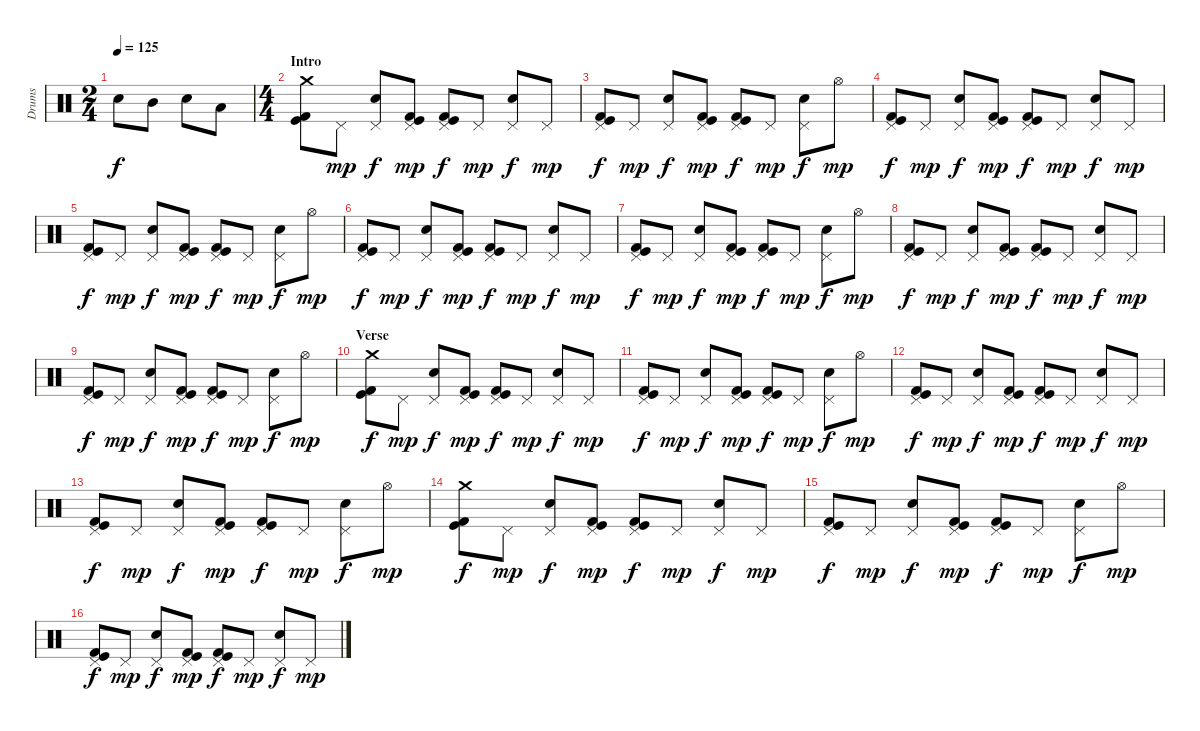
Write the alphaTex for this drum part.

\track ("Drums" "Drums") {instrument percussion}
\staff {score}
\articulation defaults
\ts (2 4)
\tempo 125
\clef neutral
\ks c "Electric Snare (hit)".8{dy f} "Mid Tom (hit)".8 "Electric Snare (hit)".8 "Low Tom (hit)".8
|
\ts (4 4)
\section ("" "Intro")
("Crash medium (hit)" "Kick (hit) 2" "Kick (hit)").8 "Pedal Hi-Hat (hit)".8{dy mp} ("Pedal Hi-Hat (hit)" "Electric Snare (hit)").8{dy f} ("Pedal Hi-Hat (hit)" "Kick (hit) 2" "Kick (hit)").8{dy mp} ("Pedal Hi-Hat (hit)" "Kick (hit) 2" "Kick (hit)").8{dy f} "Pedal Hi-Hat (hit)".8{dy mp} ("Pedal Hi-Hat (hit)" "Electric Snare (hit)").8{dy f} "Pedal Hi-Hat (hit)".8{dy mp} |
("Pedal Hi-Hat (hit)" "Kick (hit) 2" "Kick (hit)").8{dy f} "Pedal Hi-Hat (hit)".8{dy mp} ("Pedal Hi-Hat (hit)" "Electric Snare (hit)").8{dy f} ("Pedal Hi-Hat (hit)" "Kick (hit) 2" "Kick (hit)").8{dy mp} ("Pedal Hi-Hat (hit)" "Kick (hit) 2" "Kick (hit)").8{dy f} "Pedal Hi-Hat (hit)".8{dy mp} ("Pedal Hi-Hat (hit)" "Electric Snare (hit)").8{dy f} "Hi-Hat (open)".8{dy mp} |
("Pedal Hi-Hat (hit)" "Kick (hit) 2" "Kick (hit)").8{dy f} "Pedal Hi-Hat (hit)".8{dy mp} ("Pedal Hi-Hat (hit)" "Electric Snare (hit)").8{dy f} ("Pedal Hi-Hat (hit)" "Kick (hit) 2" "Kick (hit)").8{dy mp} ("Pedal Hi-Hat (hit)" "Kick (hit) 2" "Kick (hit)").8{dy f} "Pedal Hi-Hat (hit)".8{dy mp} ("Pedal Hi-Hat (hit)" "Electric Snare (hit)").8{dy f} "Pedal Hi-Hat (hit)".8{dy mp} |
("Pedal Hi-Hat (hit)" "Kick (hit) 2" "Kick (hit)").8{dy f} "Pedal Hi-Hat (hit)".8{dy mp} ("Pedal Hi-Hat (hit)" "Electric Snare (hit)").8{dy f} ("Pedal Hi-Hat (hit)" "Kick (hit) 2" "Kick (hit)").8{dy mp} ("Pedal Hi-Hat (hit)" "Kick (hit) 2" "Kick (hit)").8{dy f} "Pedal Hi-Hat (hit)".8{dy mp} ("Pedal Hi-Hat (hit)" "Electric Snare (hit)").8{dy f} "Hi-Hat (open)".8{dy mp} |
("Pedal Hi-Hat (hit)" "Kick (hit) 2" "Kick (hit)").8{dy f} "Pedal Hi-Hat (hit)".8{dy mp} ("Pedal Hi-Hat (hit)" "Electric Snare (hit)").8{dy f} ("Pedal Hi-Hat (hit)" "Kick (hit) 2" "Kick (hit)").8{dy mp} ("Pedal Hi-Hat (hit)" "Kick (hit) 2" "Kick (hit)").8{dy f} "Pedal Hi-Hat (hit)".8{dy mp} ("Pedal Hi-Hat (hit)" "Electric Snare (hit)").8{dy f} "Pedal Hi-Hat (hit)".8{dy mp} |
("Pedal Hi-Hat (hit)" "Kick (hit) 2" "Kick (hit)").8{dy f} "Pedal Hi-Hat (hit)".8{dy mp} ("Pedal Hi-Hat (hit)" "Electric Snare (hit)").8{dy f} ("Pedal Hi-Hat (hit)" "Kick (hit) 2" "Kick (hit)").8{dy mp} ("Pedal Hi-Hat (hit)" "Kick (hit) 2" "Kick (hit)").8{dy f} "Pedal Hi-Hat (hit)".8{dy mp} ("Pedal Hi-Hat (hit)" "Electric Snare (hit)").8{dy f} "Hi-Hat (open)".8{dy mp} |
("Pedal Hi-Hat (hit)" "Kick (hit) 2" "Kick (hit)").8{dy f} "Pedal Hi-Hat (hit)".8{dy mp} ("Pedal Hi-Hat (hit)" "Electric Snare (hit)").8{dy f} ("Pedal Hi-Hat (hit)" "Kick (hit) 2" "Kick (hit)").8{dy mp} ("Pedal Hi-Hat (hit)" "Kick (hit) 2" "Kick (hit)").8{dy f} "Pedal Hi-Hat (hit)".8{dy mp} ("Pedal Hi-Hat (hit)" "Electric Snare (hit)").8{dy f} "Pedal Hi-Hat (hit)".8{dy mp} |
("Pedal Hi-Hat (hit)" "Kick (hit) 2" "Kick (hit)").8{dy f} "Pedal Hi-Hat (hit)".8{dy mp} ("Pedal Hi-Hat (hit)" "Electric Snare (hit)").8{dy f} ("Pedal Hi-Hat (hit)" "Kick (hit) 2" "Kick (hit)").8{dy mp} ("Pedal Hi-Hat (hit)" "Kick (hit) 2" "Kick (hit)").8{dy f} "Pedal Hi-Hat (hit)".8{dy mp} ("Pedal Hi-Hat (hit)" "Electric Snare (hit)").8{dy f} "Hi-Hat (open)".8{dy mp} |
\section ("" "Verse")
("Crash medium (hit)" "Kick (hit) 2" "Kick (hit)").8{dy f} "Pedal Hi-Hat (hit)".8{dy mp} ("Pedal Hi-Hat (hit)" "Electric Snare (hit)").8{dy f} ("Pedal Hi-Hat (hit)" "Kick (hit) 2" "Kick (hit)").8{dy mp} ("Pedal Hi-Hat (hit)" "Kick (hit) 2" "Kick (hit)").8{dy f} "Pedal Hi-Hat (hit)".8{dy mp} ("Pedal Hi-Hat (hit)" "Electric Snare (hit)").8{dy f} "Pedal Hi-Hat (hit)".8{dy mp} |
("Pedal Hi-Hat (hit)" "Kick (hit) 2" "Kick (hit)").8{dy f} "Pedal Hi-Hat (hit)".8{dy mp} ("Pedal Hi-Hat (hit)" "Electric Snare (hit)").8{dy f} ("Pedal Hi-Hat (hit)" "Kick (hit) 2" "Kick (hit)").8{dy mp} ("Pedal Hi-Hat (hit)" "Kick (hit) 2" "Kick (hit)").8{dy f} "Pedal Hi-Hat (hit)".8{dy mp} ("Pedal Hi-Hat (hit)" "Electric Snare (hit)").8{dy f} "Hi-Hat (open)".8{dy mp} |
("Pedal Hi-Hat (hit)" "Kick (hit) 2" "Kick (hit)").8{dy f} "Pedal Hi-Hat (hit)".8{dy mp} ("Pedal Hi-Hat (hit)" "Electric Snare (hit)").8{dy f} ("Pedal Hi-Hat (hit)" "Kick (hit) 2" "Kick (hit)").8{dy mp} ("Pedal Hi-Hat (hit)" "Kick (hit) 2" "Kick (hit)").8{dy f} "Pedal Hi-Hat (hit)".8{dy mp} ("Pedal Hi-Hat (hit)" "Electric Snare (hit)").8{dy f} "Pedal Hi-Hat (hit)".8{dy mp} |
("Pedal Hi-Hat (hit)" "Kick (hit) 2" "Kick (hit)").8{dy f} "Pedal Hi-Hat (hit)".8{dy mp} ("Pedal Hi-Hat (hit)" "Electric Snare (hit)").8{dy f} ("Pedal Hi-Hat (hit)" "Kick (hit) 2" "Kick (hit)").8{dy mp} ("Pedal Hi-Hat (hit)" "Kick (hit) 2" "Kick (hit)").8{dy f} "Pedal Hi-Hat (hit)".8{dy mp} ("Pedal Hi-Hat (hit)" "Electric Snare (hit)").8{dy f} "Hi-Hat (open)".8{dy mp} |
("Crash medium (hit)" "Kick (hit) 2" "Kick (hit)").8{dy f} "Pedal Hi-Hat (hit)".8{dy mp} ("Pedal Hi-Hat (hit)" "Electric Snare (hit)").8{dy f} ("Pedal Hi-Hat (hit)" "Kick (hit) 2" "Kick (hit)").8{dy mp} ("Pedal Hi-Hat (hit)" "Kick (hit) 2" "Kick (hit)").8{dy f} "Pedal Hi-Hat (hit)".8{dy mp} ("Pedal Hi-Hat (hit)" "Electric Snare (hit)").8{dy f} "Pedal Hi-Hat (hit)".8{dy mp} |
("Pedal Hi-Hat (hit)" "Kick (hit) 2" "Kick (hit)").8{dy f} "Pedal Hi-Hat (hit)".8{dy mp} ("Pedal Hi-Hat (hit)" "Electric Snare (hit)").8{dy f} ("Pedal Hi-Hat (hit)" "Kick (hit) 2" "Kick (hit)").8{dy mp} ("Pedal Hi-Hat (hit)" "Kick (hit) 2" "Kick (hit)").8{dy f} "Pedal Hi-Hat (hit)".8{dy mp} ("Pedal Hi-Hat (hit)" "Electric Snare (hit)").8{dy f} "Hi-Hat (open)".8{dy mp} |
("Pedal Hi-Hat (hit)" "Kick (hit) 2" "Kick (hit)").8{dy f} "Pedal Hi-Hat (hit)".8{dy mp} ("Pedal Hi-Hat (hit)" "Electric Snare (hit)").8{dy f} ("Pedal Hi-Hat (hit)" "Kick (hit) 2" "Kick (hit)").8{dy mp} ("Pedal Hi-Hat (hit)" "Kick (hit) 2" "Kick (hit)").8{dy f} "Pedal Hi-Hat (hit)".8{dy mp} ("Pedal Hi-Hat (hit)" "Electric Snare (hit)").8{dy f} "Pedal Hi-Hat (hit)".8{dy mp}
